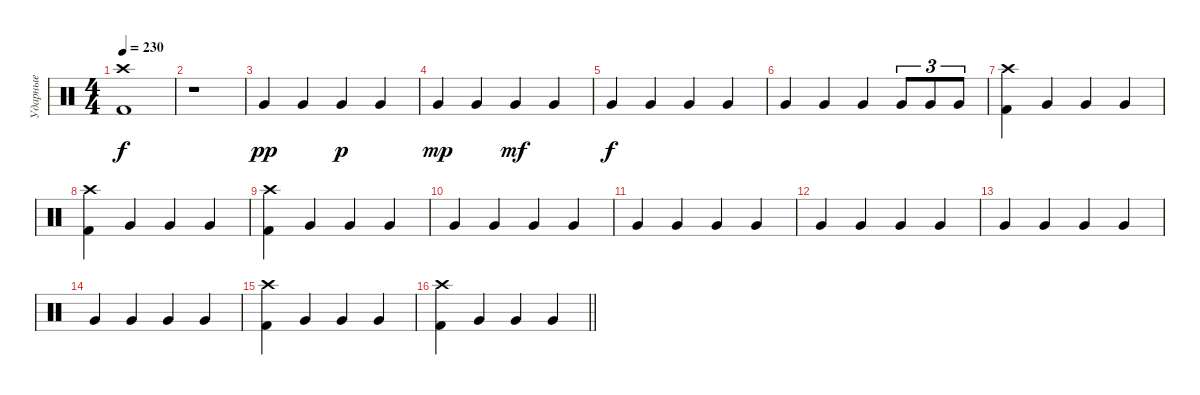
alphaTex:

\track ("Ударные" "Ударные") {instrument percussion}
\staff {score}
\articulation defaults
\ts (4 4)
\tempo 230
\clef neutral
\ks c
("Kick (hit) 2" "Crash high (hit)").1{dy f} |
r.1 |
"Very Low Tom (hit)".4{dy pp} "Very Low Tom (hit)".4 "Very Low Tom (hit)".4{dy p} "Very Low Tom (hit)".4 |
"Very Low Tom (hit)".4{dy mp} "Very Low Tom (hit)".4 "Very Low Tom (hit)".4{dy mf} "Very Low Tom (hit)".4 |
"Very Low Tom (hit)".4{dy f} "Very Low Tom (hit)".4 "Very Low Tom (hit)".4 "Very Low Tom (hit)".4 |
"Very Low Tom (hit)".4 "Very Low Tom (hit)".4 "Very Low Tom (hit)".4 "Very Low Tom (hit)".8{tu (3 2)} "Very Low Tom (hit)".8{tu (3 2)} "Very Low Tom (hit)".8{tu (3 2)} |
("Kick (hit) 2" "Crash high (hit)").4 "Very Low Tom (hit)".4 "Very Low Tom (hit)".4 "Very Low Tom (hit)".4 |
("Kick (hit) 2" "Crash high (hit)").4 "Very Low Tom (hit)".4 "Very Low Tom (hit)".4 "Very Low Tom (hit)".4 |
("Kick (hit) 2" "Crash high (hit)").4 "Very Low Tom (hit)".4 "Very Low Tom (hit)".4 "Very Low Tom (hit)".4 |
"Very Low Tom (hit)".4 "Very Low Tom (hit)".4 "Very Low Tom (hit)".4 "Very Low Tom (hit)".4 |
"Very Low Tom (hit)".4 "Very Low Tom (hit)".4 "Very Low Tom (hit)".4 "Very Low Tom (hit)".4 |
"Very Low Tom (hit)".4 "Very Low Tom (hit)".4 "Very Low Tom (hit)".4 "Very Low Tom (hit)".4 |
"Very Low Tom (hit)".4 "Very Low Tom (hit)".4 "Very Low Tom (hit)".4 "Very Low Tom (hit)".4 |
"Very Low Tom (hit)".4 "Very Low Tom (hit)".4 "Very Low Tom (hit)".4 "Very Low Tom (hit)".4 |
("Kick (hit) 2" "Crash high (hit)").4 "Very Low Tom (hit)".4 "Very Low Tom (hit)".4 "Very Low Tom (hit)".4 |
\barLineRight lightlight
("Kick (hit) 2" "Crash high (hit)").4 "Very Low Tom (hit)".4 "Very Low Tom (hit)".4 "Very Low Tom (hit)".4
